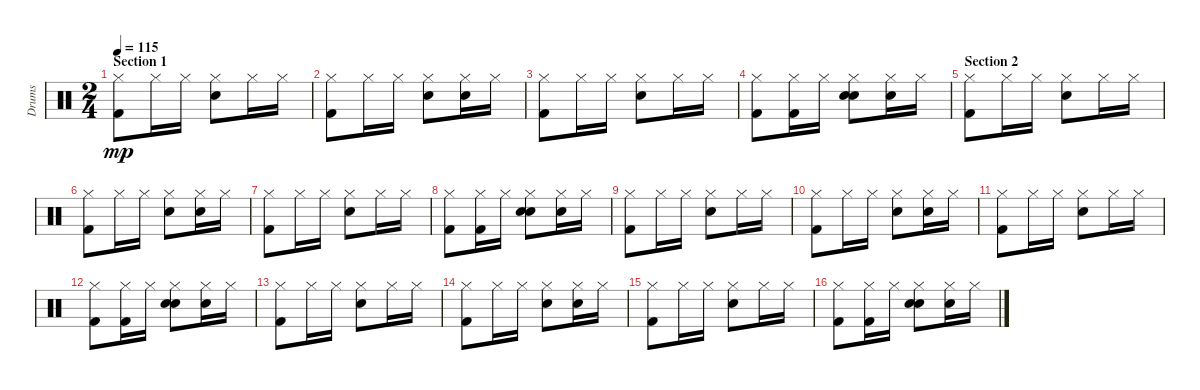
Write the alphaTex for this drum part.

\track ("Drums" "Drums") {instrument percussion}
\staff {score}
\articulation defaults
\ts (2 4)
\section ("" "Section 1")
\tempo 115
\clef neutral
\ks c
("Hi-Hat (closed)" "Kick (hit) 2").8{dy mp} "Hi-Hat (closed)".16 "Hi-Hat (closed)".16 ("Hi-Hat (closed)" "Electric Snare (hit)").8 "Hi-Hat (closed)".16 "Hi-Hat (closed)".16 |
("Hi-Hat (closed)" "Kick (hit) 2").8 "Hi-Hat (closed)".16 "Hi-Hat (closed)".16 ("Hi-Hat (closed)" "Electric Snare (hit)").8 ("Hi-Hat (closed)" "Hand Clap (hit)").16 "Hi-Hat (closed)".16 |
("Hi-Hat (closed)" "Kick (hit) 2").8 "Hi-Hat (closed)".16 "Hi-Hat (closed)".16 ("Hi-Hat (closed)" "Electric Snare (hit)").8 "Hi-Hat (closed)".16 "Hi-Hat (closed)".16 |
("Hi-Hat (closed)" "Kick (hit) 2").8 ("Hi-Hat (closed)" "Kick (hit) 2").16 "Hi-Hat (closed)".16 ("Hi-Hat (closed)" "Hand Clap (hit)" "Electric Snare (hit)").8 ("Hi-Hat (closed)" "Hand Clap (hit)").16 "Hi-Hat (closed)".16 |
\section ("" "Section 2")
("Hi-Hat (closed)" "Kick (hit) 2").8 "Hi-Hat (closed)".16 "Hi-Hat (closed)".16 ("Hi-Hat (closed)" "Electric Snare (hit)").8 "Hi-Hat (closed)".16 "Hi-Hat (closed)".16 |
("Hi-Hat (closed)" "Kick (hit) 2").8 "Hi-Hat (closed)".16 "Hi-Hat (closed)".16 ("Hi-Hat (closed)" "Electric Snare (hit)").8 ("Hi-Hat (closed)" "Hand Clap (hit)").16 "Hi-Hat (closed)".16 |
("Hi-Hat (closed)" "Kick (hit) 2").8 "Hi-Hat (closed)".16 "Hi-Hat (closed)".16 ("Hi-Hat (closed)" "Electric Snare (hit)").8 "Hi-Hat (closed)".16 "Hi-Hat (closed)".16 |
("Hi-Hat (closed)" "Kick (hit) 2").8 ("Hi-Hat (closed)" "Kick (hit) 2").16 "Hi-Hat (closed)".16 ("Hi-Hat (closed)" "Hand Clap (hit)" "Electric Snare (hit)").8 ("Hi-Hat (closed)" "Hand Clap (hit)").16 "Hi-Hat (closed)".16 |
("Hi-Hat (closed)" "Kick (hit) 2").8 "Hi-Hat (closed)".16 "Hi-Hat (closed)".16 ("Hi-Hat (closed)" "Electric Snare (hit)").8 "Hi-Hat (closed)".16 "Hi-Hat (closed)".16 |
("Hi-Hat (closed)" "Kick (hit) 2").8 "Hi-Hat (closed)".16 "Hi-Hat (closed)".16 ("Hi-Hat (closed)" "Electric Snare (hit)").8 ("Hi-Hat (closed)" "Hand Clap (hit)").16 "Hi-Hat (closed)".16 |
("Hi-Hat (closed)" "Kick (hit) 2").8 "Hi-Hat (closed)".16 "Hi-Hat (closed)".16 ("Hi-Hat (closed)" "Electric Snare (hit)").8 "Hi-Hat (closed)".16 "Hi-Hat (closed)".16 |
("Hi-Hat (closed)" "Kick (hit) 2").8 ("Hi-Hat (closed)" "Kick (hit) 2").16 "Hi-Hat (closed)".16 ("Hi-Hat (closed)" "Hand Clap (hit)" "Electric Snare (hit)").8 ("Hi-Hat (closed)" "Hand Clap (hit)").16 "Hi-Hat (closed)".16 |
("Hi-Hat (closed)" "Kick (hit) 2").8 "Hi-Hat (closed)".16 "Hi-Hat (closed)".16 ("Hi-Hat (closed)" "Electric Snare (hit)").8 "Hi-Hat (closed)".16 "Hi-Hat (closed)".16 |
("Hi-Hat (closed)" "Kick (hit) 2").8 "Hi-Hat (closed)".16 "Hi-Hat (closed)".16 ("Hi-Hat (closed)" "Electric Snare (hit)").8 ("Hi-Hat (closed)" "Hand Clap (hit)").16 "Hi-Hat (closed)".16 |
("Hi-Hat (closed)" "Kick (hit) 2").8 "Hi-Hat (closed)".16 "Hi-Hat (closed)".16 ("Hi-Hat (closed)" "Electric Snare (hit)").8 "Hi-Hat (closed)".16 "Hi-Hat (closed)".16 |
("Hi-Hat (closed)" "Kick (hit) 2").8 ("Hi-Hat (closed)" "Kick (hit) 2").16 "Hi-Hat (closed)".16 ("Hi-Hat (closed)" "Hand Clap (hit)" "Electric Snare (hit)").8 ("Hi-Hat (closed)" "Hand Clap (hit)").16 "Hi-Hat (closed)".16
